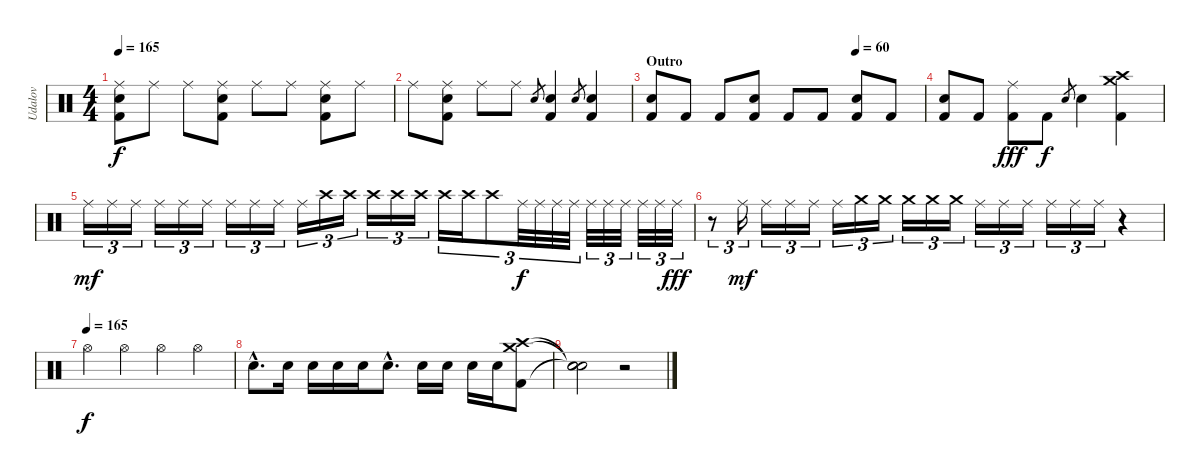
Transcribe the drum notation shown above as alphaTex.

\track ("Udalov" "Udalov") {instrument percussion}
\staff {score}
\articulation defaults
\ts (4 4)
\tempo 165
\clef neutral
\ks c
("Snare (hit) 2" "Ride (middle)" "Kick (hit) 2").8{dy f} "Ride (middle)".8 "Ride (middle)".8 ("Snare (hit) 2" "Ride (middle)" "Kick (hit) 2").8 "Ride (middle)".8 "Ride (middle)".8 ("Snare (hit) 2" "Ride (middle)" "Kick (hit) 2").8 "Ride (middle)".8 |
"Ride (middle)".8 ("Snare (hit) 2" "Ride (middle)" "Kick (hit) 2").8 "Ride (middle)".8 "Ride (middle)".8 "Snare (hit) 2".8{gr} ("Snare (hit) 2" "Kick (hit) 2").4 "Snare (hit) 2".8{gr} ("Snare (hit) 2" "Kick (hit) 2").4 |
\section ("" "Outro")
\tempo (60 0.75)
("Kick (hit) 2" "Snare (hit) 2").8 "Kick (hit) 2".8 "Kick (hit) 2".8 ("Kick (hit) 2" "Snare (hit) 2").8 "Kick (hit) 2".8 "Kick (hit) 2".8 ("Kick (hit) 2" "Snare (hit) 2").8 "Kick (hit) 2".8 |
("Kick (hit) 2" "Snare (hit) 2").8 "Kick (hit) 2".8 ("Kick (hit) 2" "Ride (middle)").8{dy fff} "Kick (hit) 2".8{dy f} "Snare (hit) 2".8{gr} "Snare (hit) 2".4 ("Kick (hit) 2" "Crash medium (hit)" "Crash high (hit)").4 |
"Ride (middle)".16{tu (3 2) dy mf} "Ride (middle)".16{tu (3 2)} "Ride (middle)".16{tu (3 2)} "Ride (middle)".16{tu (3 2)} "Ride (middle)".16{tu (3 2)} "Ride (middle)".16{tu (3 2)} "Ride (middle)".16{tu (3 2)} "Ride (middle)".16{tu (3 2)} "Ride (middle)".16{tu (3 2)} "Ride (middle)".16{tu (3 2)} "Crash high (hit)".16{tu (3 2)} "Crash high (hit)".16{tu (3 2)} "Crash high (hit)".16{tu (3 2)} "Crash high (hit)".16{tu (3 2)} "Crash high (hit)".16{tu (3 2)} "Crash high (hit)".16{tu (3 2)} "Crash high (hit)".16{tu (3 2)} "Crash high (hit)".8{tu (3 2)} "Ride (middle)".32{tu (3 2) dy f} "Ride (middle)".32{tu (3 2)} "Ride (middle)".32{tu (3 2)} "Ride (middle)".32{tu (3 2)} "Ride (middle)".32{tu (3 2)} "Ride (middle)".32{tu (3 2)} "Ride (middle)".32{tu (3 2)} "Ride (middle)".32{tu (3 2)} "Ride (middle)".32{tu (3 2)} "Ride (middle)".32{tu (3 2) dy fff} |
r.8{tu (3 2)} "Ride (middle)".16{tu (3 2) dy mf} "Ride (middle)".16{tu (3 2)} "Ride (middle)".16{tu (3 2)} "Ride (middle)".16{tu (3 2)} "Ride (middle)".16{tu (3 2)} "Crash medium (hit)".16{tu (3 2)} "Crash medium (hit)".16{tu (3 2)} "Crash medium (hit)".16{tu (3 2)} "Crash medium (hit)".16{tu (3 2)} "Crash medium (hit)".16{tu (3 2)} "Ride (middle)".16{tu (3 2)} "Ride (middle)".16{tu (3 2)} "Ride (middle)".16{tu (3 2)} "Ride (middle)".16{tu (3 2)} "Ride (middle)".16{tu (3 2)} "Ride (middle)".16{tu (3 2)} r.4 |
\tempo (165)
"Hi-Hat (open)".4{dy f} "Hi-Hat (open)".4 "Hi-Hat (open)".4 "Hi-Hat (open)".4 |
"Snare (hit) 2"{hac}.8{d} "Electric Snare (hit)".16 "Electric Snare (hit)".16 "Electric Snare (hit)".16 "Electric Snare (hit)".16 "Electric Snare (hit)"{hac}.8{d} "Electric Snare (hit)".16 "Electric Snare (hit)".16 "Electric Snare (hit)".16 "Electric Snare (hit)".16 ("Kick (hit) 2" "Crash medium (hit)" "Crash high (hit)").8 |
("Snare (hit)"{t} "Snare (hit)"{t} "Snare (hit)"{t}).2 r.2
